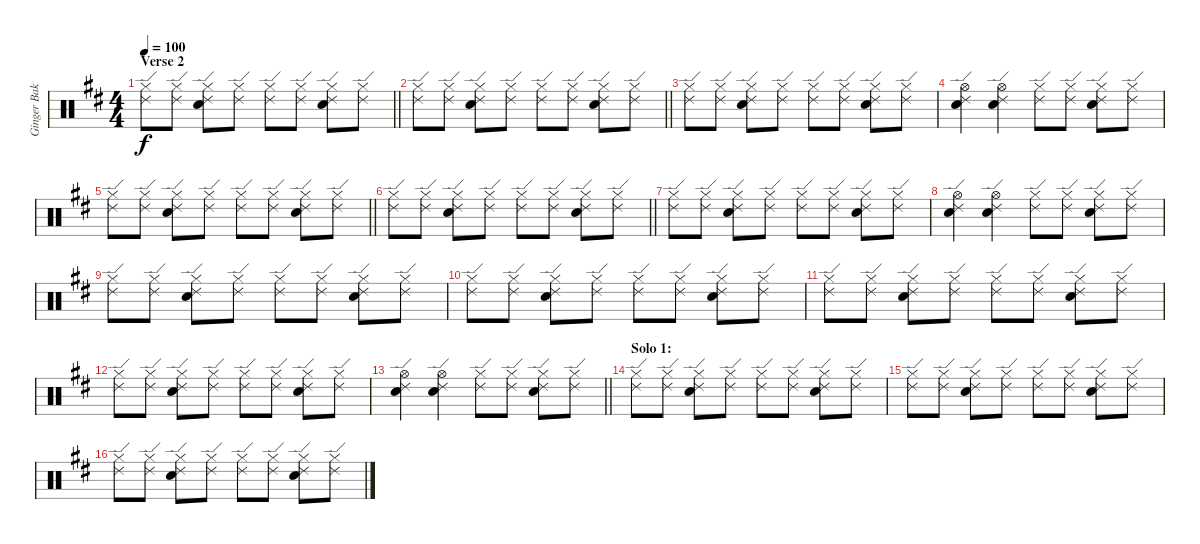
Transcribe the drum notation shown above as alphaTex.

\track ("Ginger Baker" "Ginger Bak") {instrument percussion}
\staff {score}
\articulation defaults
\ts (4 4)
\section ("" "Verse 2")
\tempo 100
\clef neutral
\barLineRight lightlight
\ks d
("Hi-Hat (closed)" "Ride (edge) 2").8{dy f} ("Hi-Hat (closed)" "Ride (edge) 2").8 ("Hi-Hat (closed)" "Ride (edge) 2" "Electric Snare (hit)").8 ("Hi-Hat (closed)" "Ride (edge) 2").8 ("Hi-Hat (closed)" "Ride (edge) 2").8 ("Hi-Hat (closed)" "Ride (edge) 2").8 ("Hi-Hat (closed)" "Ride (edge) 2" "Electric Snare (hit)").8 ("Hi-Hat (closed)" "Ride (edge) 2").8 |
\barLineRight lightlight
("Hi-Hat (closed)" "Ride (edge) 2").8 ("Hi-Hat (closed)" "Ride (edge) 2").8 ("Hi-Hat (closed)" "Ride (edge) 2" "Electric Snare (hit)").8 ("Hi-Hat (closed)" "Ride (edge) 2").8 ("Hi-Hat (closed)" "Ride (edge) 2").8 ("Hi-Hat (closed)" "Ride (edge) 2").8 ("Hi-Hat (closed)" "Ride (edge) 2" "Electric Snare (hit)").8 ("Hi-Hat (closed)" "Ride (edge) 2").8 |
("Hi-Hat (closed)" "Ride (edge) 2").8 ("Hi-Hat (closed)" "Ride (edge) 2").8 ("Hi-Hat (closed)" "Ride (edge) 2" "Electric Snare (hit)").8 ("Hi-Hat (closed)" "Ride (edge) 2").8 ("Hi-Hat (closed)" "Ride (edge) 2").8 ("Hi-Hat (closed)" "Ride (edge) 2").8 ("Hi-Hat (closed)" "Ride (edge) 2" "Electric Snare (hit)").8 ("Hi-Hat (closed)" "Ride (edge) 2").8 |
("Hi-Hat (open)" "Ride (edge) 2" "Electric Snare (hit)").4 ("Hi-Hat (open)" "Ride (edge) 2" "Electric Snare (hit)").4 ("Hi-Hat (closed)" "Ride (edge) 2").8 ("Hi-Hat (closed)" "Ride (edge) 2").8 ("Hi-Hat (closed)" "Ride (edge) 2" "Electric Snare (hit)").8 ("Hi-Hat (closed)" "Ride (edge) 2").8 |
\barLineRight lightlight
("Hi-Hat (closed)" "Ride (edge) 2").8 ("Hi-Hat (closed)" "Ride (edge) 2").8 ("Hi-Hat (closed)" "Ride (edge) 2" "Electric Snare (hit)").8 ("Hi-Hat (closed)" "Ride (edge) 2").8 ("Hi-Hat (closed)" "Ride (edge) 2").8 ("Hi-Hat (closed)" "Ride (edge) 2").8 ("Hi-Hat (closed)" "Ride (edge) 2" "Electric Snare (hit)").8 ("Hi-Hat (closed)" "Ride (edge) 2").8 |
\barLineRight lightlight
("Hi-Hat (closed)" "Ride (edge) 2").8 ("Hi-Hat (closed)" "Ride (edge) 2").8 ("Hi-Hat (closed)" "Ride (edge) 2" "Electric Snare (hit)").8 ("Hi-Hat (closed)" "Ride (edge) 2").8 ("Hi-Hat (closed)" "Ride (edge) 2").8 ("Hi-Hat (closed)" "Ride (edge) 2").8 ("Hi-Hat (closed)" "Ride (edge) 2" "Electric Snare (hit)").8 ("Hi-Hat (closed)" "Ride (edge) 2").8 |
("Hi-Hat (closed)" "Ride (edge) 2").8 ("Hi-Hat (closed)" "Ride (edge) 2").8 ("Hi-Hat (closed)" "Ride (edge) 2" "Electric Snare (hit)").8 ("Hi-Hat (closed)" "Ride (edge) 2").8 ("Hi-Hat (closed)" "Ride (edge) 2").8 ("Hi-Hat (closed)" "Ride (edge) 2").8 ("Hi-Hat (closed)" "Ride (edge) 2" "Electric Snare (hit)").8 ("Hi-Hat (closed)" "Ride (edge) 2").8 |
("Hi-Hat (open)" "Ride (edge) 2" "Electric Snare (hit)").4 ("Hi-Hat (open)" "Ride (edge) 2" "Electric Snare (hit)").4 ("Hi-Hat (closed)" "Ride (edge) 2").8 ("Hi-Hat (closed)" "Ride (edge) 2").8 ("Hi-Hat (closed)" "Ride (edge) 2" "Electric Snare (hit)").8 ("Hi-Hat (closed)" "Ride (edge) 2").8 |
("Hi-Hat (closed)" "Ride (edge) 2").8 ("Hi-Hat (closed)" "Ride (edge) 2").8 ("Hi-Hat (closed)" "Ride (edge) 2" "Electric Snare (hit)").8 ("Hi-Hat (closed)" "Ride (edge) 2").8 ("Hi-Hat (closed)" "Ride (edge) 2").8 ("Hi-Hat (closed)" "Ride (edge) 2").8 ("Hi-Hat (closed)" "Ride (edge) 2" "Electric Snare (hit)").8 ("Hi-Hat (closed)" "Ride (edge) 2").8 |
("Hi-Hat (closed)" "Ride (edge) 2").8 ("Hi-Hat (closed)" "Ride (edge) 2").8 ("Hi-Hat (closed)" "Ride (edge) 2" "Electric Snare (hit)").8 ("Hi-Hat (closed)" "Ride (edge) 2").8 ("Hi-Hat (closed)" "Ride (edge) 2").8 ("Hi-Hat (closed)" "Ride (edge) 2").8 ("Hi-Hat (closed)" "Ride (edge) 2" "Electric Snare (hit)").8 ("Hi-Hat (closed)" "Ride (edge) 2").8 |
("Hi-Hat (closed)" "Ride (edge) 2").8 ("Hi-Hat (closed)" "Ride (edge) 2").8 ("Hi-Hat (closed)" "Ride (edge) 2" "Electric Snare (hit)").8 ("Hi-Hat (closed)" "Ride (edge) 2").8 ("Hi-Hat (closed)" "Ride (edge) 2").8 ("Hi-Hat (closed)" "Ride (edge) 2").8 ("Hi-Hat (closed)" "Ride (edge) 2" "Electric Snare (hit)").8 ("Hi-Hat (closed)" "Ride (edge) 2").8 |
("Hi-Hat (closed)" "Ride (edge) 2").8 ("Hi-Hat (closed)" "Ride (edge) 2").8 ("Hi-Hat (closed)" "Ride (edge) 2" "Electric Snare (hit)").8 ("Hi-Hat (closed)" "Ride (edge) 2").8 ("Hi-Hat (closed)" "Ride (edge) 2").8 ("Hi-Hat (closed)" "Ride (edge) 2").8 ("Hi-Hat (closed)" "Ride (edge) 2" "Electric Snare (hit)").8 ("Hi-Hat (closed)" "Ride (edge) 2").8 |
\barLineRight lightlight
("Hi-Hat (open)" "Ride (edge) 2" "Electric Snare (hit)").4 ("Hi-Hat (open)" "Ride (edge) 2" "Electric Snare (hit)").4 ("Hi-Hat (closed)" "Ride (edge) 2").8 ("Hi-Hat (closed)" "Ride (edge) 2").8 ("Hi-Hat (closed)" "Ride (edge) 2" "Electric Snare (hit)").8 ("Hi-Hat (closed)" "Ride (edge) 2").8 |
\section ("" "Solo 1:")
("Hi-Hat (closed)" "Ride (edge) 2").8 ("Hi-Hat (closed)" "Ride (edge) 2").8 ("Hi-Hat (closed)" "Ride (edge) 2" "Electric Snare (hit)").8 ("Hi-Hat (closed)" "Ride (edge) 2").8 ("Hi-Hat (closed)" "Ride (edge) 2").8 ("Hi-Hat (closed)" "Ride (edge) 2").8 ("Hi-Hat (closed)" "Ride (edge) 2" "Electric Snare (hit)").8 ("Hi-Hat (closed)" "Ride (edge) 2").8 |
("Hi-Hat (closed)" "Ride (edge) 2").8 ("Hi-Hat (closed)" "Ride (edge) 2").8 ("Hi-Hat (closed)" "Ride (edge) 2" "Electric Snare (hit)").8 ("Hi-Hat (closed)" "Ride (edge) 2").8 ("Hi-Hat (closed)" "Ride (edge) 2").8 ("Hi-Hat (closed)" "Ride (edge) 2").8 ("Hi-Hat (closed)" "Ride (edge) 2" "Electric Snare (hit)").8 ("Hi-Hat (closed)" "Ride (edge) 2").8 |
("Hi-Hat (closed)" "Ride (edge) 2").8 ("Hi-Hat (closed)" "Ride (edge) 2").8 ("Hi-Hat (closed)" "Ride (edge) 2" "Electric Snare (hit)").8 ("Hi-Hat (closed)" "Ride (edge) 2").8 ("Hi-Hat (closed)" "Ride (edge) 2").8 ("Hi-Hat (closed)" "Ride (edge) 2").8 ("Hi-Hat (closed)" "Ride (edge) 2" "Electric Snare (hit)").8 ("Hi-Hat (closed)" "Ride (edge) 2").8
